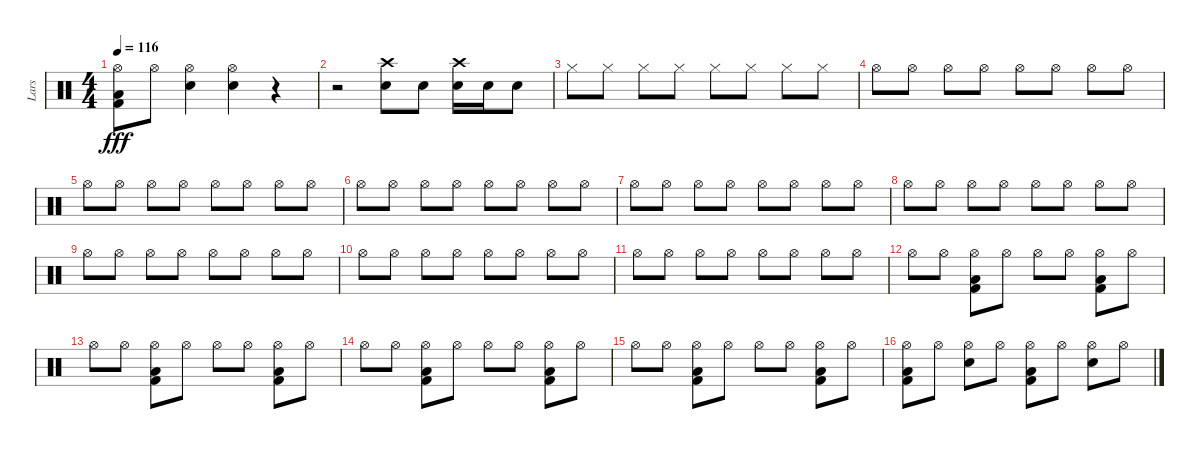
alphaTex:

\track ("Lars" "Lars") {instrument percussion}
\staff {score}
\articulation defaults
\ts (4 4)
\tempo 116
\clef neutral
\ks c
("Low Floor Tom (hit)" "Hi-Hat (open)" "Kick (hit) 2").8{dy fff} "Hi-Hat (open)".8 ("Hi-Hat (open)" "Electric Snare (hit)").4 ("Hi-Hat (open)" "Electric Snare (hit)").4 r.4 |
r.2 ("Crash high (hit)" "Electric Snare (hit)").8 "Electric Snare (hit)".8 ("Crash high (hit)" "Electric Snare (hit)").16 "Electric Snare (hit)".16 "Electric Snare (hit)".8 |
"Hi-Hat (closed)".8 "Hi-Hat (closed)".8 "Hi-Hat (closed)".8 "Hi-Hat (closed)".8 "Hi-Hat (closed)".8 "Hi-Hat (closed)".8 "Hi-Hat (closed)".8 "Hi-Hat (closed)".8 |
"Hi-Hat (open)".8 "Hi-Hat (open)".8 "Hi-Hat (open)".8 "Hi-Hat (open)".8 "Hi-Hat (open)".8 "Hi-Hat (open)".8 "Hi-Hat (open)".8 "Hi-Hat (open)".8 |
"Hi-Hat (open)".8 "Hi-Hat (open)".8 "Hi-Hat (open)".8 "Hi-Hat (open)".8 "Hi-Hat (open)".8 "Hi-Hat (open)".8 "Hi-Hat (open)".8 "Hi-Hat (open)".8 |
"Hi-Hat (open)".8 "Hi-Hat (open)".8 "Hi-Hat (open)".8 "Hi-Hat (open)".8 "Hi-Hat (open)".8 "Hi-Hat (open)".8 "Hi-Hat (open)".8 "Hi-Hat (open)".8 |
"Hi-Hat (open)".8 "Hi-Hat (open)".8 "Hi-Hat (open)".8 "Hi-Hat (open)".8 "Hi-Hat (open)".8 "Hi-Hat (open)".8 "Hi-Hat (open)".8 "Hi-Hat (open)".8 |
"Hi-Hat (open)".8 "Hi-Hat (open)".8 "Hi-Hat (open)".8 "Hi-Hat (open)".8 "Hi-Hat (open)".8 "Hi-Hat (open)".8 "Hi-Hat (open)".8 "Hi-Hat (open)".8 |
"Hi-Hat (open)".8 "Hi-Hat (open)".8 "Hi-Hat (open)".8 "Hi-Hat (open)".8 "Hi-Hat (open)".8 "Hi-Hat (open)".8 "Hi-Hat (open)".8 "Hi-Hat (open)".8 |
"Hi-Hat (open)".8 "Hi-Hat (open)".8 "Hi-Hat (open)".8 "Hi-Hat (open)".8 "Hi-Hat (open)".8 "Hi-Hat (open)".8 "Hi-Hat (open)".8 "Hi-Hat (open)".8 |
"Hi-Hat (open)".8 "Hi-Hat (open)".8 "Hi-Hat (open)".8 "Hi-Hat (open)".8 "Hi-Hat (open)".8 "Hi-Hat (open)".8 "Hi-Hat (open)".8 "Hi-Hat (open)".8 |
"Hi-Hat (open)".8 "Hi-Hat (open)".8 ("Low Floor Tom (hit)" "Hi-Hat (open)" "Kick (hit) 2").8 "Hi-Hat (open)".8 "Hi-Hat (open)".8 "Hi-Hat (open)".8 ("Low Floor Tom (hit)" "Hi-Hat (open)" "Kick (hit) 2").8 "Hi-Hat (open)".8 |
"Hi-Hat (open)".8 "Hi-Hat (open)".8 ("Low Floor Tom (hit)" "Hi-Hat (open)" "Kick (hit) 2").8 "Hi-Hat (open)".8 "Hi-Hat (open)".8 "Hi-Hat (open)".8 ("Low Floor Tom (hit)" "Hi-Hat (open)" "Kick (hit) 2").8 "Hi-Hat (open)".8 |
"Hi-Hat (open)".8 "Hi-Hat (open)".8 ("Low Floor Tom (hit)" "Hi-Hat (open)" "Kick (hit) 2").8 "Hi-Hat (open)".8 "Hi-Hat (open)".8 "Hi-Hat (open)".8 ("Low Floor Tom (hit)" "Hi-Hat (open)" "Kick (hit) 2").8 "Hi-Hat (open)".8 |
"Hi-Hat (open)".8 "Hi-Hat (open)".8 ("Low Floor Tom (hit)" "Hi-Hat (open)" "Kick (hit) 2").8 "Hi-Hat (open)".8 "Hi-Hat (open)".8 "Hi-Hat (open)".8 ("Low Floor Tom (hit)" "Hi-Hat (open)" "Kick (hit) 2").8 "Hi-Hat (open)".8 |
("Low Floor Tom (hit)" "Hi-Hat (open)" "Kick (hit) 2").8 "Hi-Hat (open)".8 ("Hi-Hat (open)" "Electric Snare (hit)").8 "Hi-Hat (open)".8 ("Low Floor Tom (hit)" "Hi-Hat (open)" "Kick (hit) 2").8 "Hi-Hat (open)".8 ("Hi-Hat (open)" "Electric Snare (hit)").8 "Hi-Hat (open)".8
